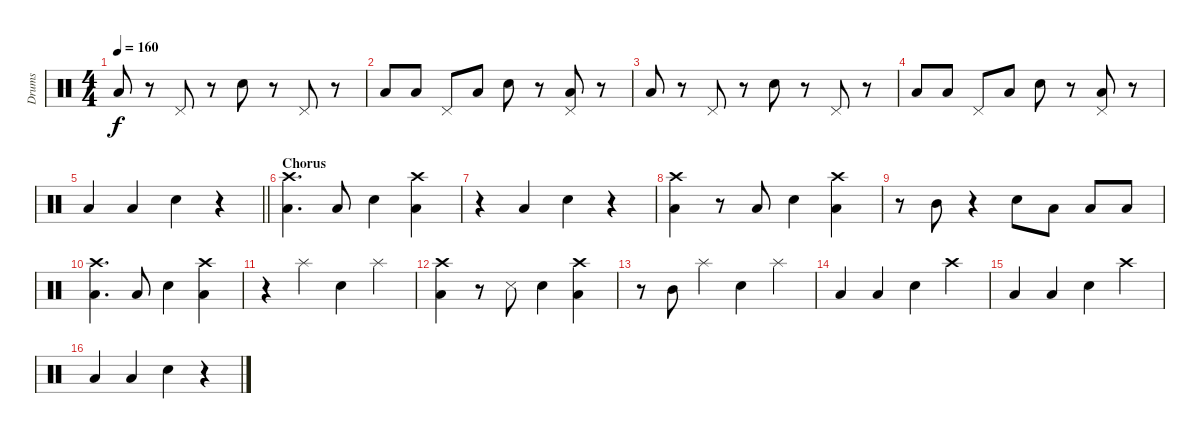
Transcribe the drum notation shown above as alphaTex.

\track ("Drums" "Drums") {instrument percussion}
\staff {score}
\articulation defaults
\ts (4 4)
\tempo 160
\clef neutral
\ks c "Low Floor Tom (hit)".8{dy f}
r.8 "Pedal Hi-Hat (hit)".8 r.8 "Snare (hit) 2".8 r.8 "Pedal Hi-Hat (hit)".8 r.8 |
"Low Floor Tom (hit)".8 "Low Floor Tom (hit)".8 "Pedal Hi-Hat (hit)".8 "Low Floor Tom (hit)".8 "Snare (hit) 2".8 r.8 ("Low Floor Tom (hit)" "Pedal Hi-Hat (hit)").8 r.8 |
"Low Floor Tom (hit)".8 r.8 "Pedal Hi-Hat (hit)".8 r.8 "Snare (hit) 2".8 r.8 "Pedal Hi-Hat (hit)".8 r.8 |
"Low Floor Tom (hit)".8 "Low Floor Tom (hit)".8 "Pedal Hi-Hat (hit)".8 "Low Floor Tom (hit)".8 "Snare (hit) 2".8 r.8 ("Low Floor Tom (hit)" "Pedal Hi-Hat (hit)").8 r.8 |
\barLineRight lightlight "Low Floor Tom (hit)".4 "Low Floor Tom (hit)".4 "Snare (hit) 2".4
r.4 |
\section ("" "Chorus")
("Low Floor Tom (hit)" "Crash high (hit)").4{d} "Low Floor Tom (hit)".8 "Snare (hit) 2".4 ("Low Floor Tom (hit)" "Crash high (hit)").4 |
r.4 "Low Floor Tom (hit)".4 "Snare (hit) 2".4 r.4 |
("Low Floor Tom (hit)" "Crash high (hit)").4 r.8 "Low Floor Tom (hit)".8 "Snare (hit) 2".4 ("Low Floor Tom (hit)" "Crash high (hit)").4 |
r.8 "Mid Tom (hit)".8 r.4 "Snare (hit) 2".8 "Low Floor Tom (hit)".8 "Low Floor Tom (hit)".8 "Low Floor Tom (hit)".8 |
("Low Floor Tom (hit)" "Crash high (hit)").4{d} "Low Floor Tom (hit)".8 "Snare (hit) 2".4 ("Low Floor Tom (hit)" "Crash high (hit)").4 |
r.4 "Splash (hit)".4 "Snare (hit) 2".4 "Splash (hit)".4 |
("Low Floor Tom (hit)" "Crash high (hit)").4 r.8 "Snare (side stick) 3".8 "Snare (hit) 2".4 ("Low Floor Tom (hit)" "Crash high (hit)").4 |
r.8 "Mid Tom (hit)".8 "Splash (hit)".4 "Snare (hit) 2".4 "Splash (hit)".4 |
"Low Floor Tom (hit)".4 "Low Floor Tom (hit)".4 "Snare (hit) 2".4 "Crash high (hit)".4 |
"Low Floor Tom (hit)".4 "Low Floor Tom (hit)".4 "Snare (hit) 2".4 "Crash high (hit)".4 |
"Low Floor Tom (hit)".4 "Low Floor Tom (hit)".4 "Snare (hit) 2".4 r.4
